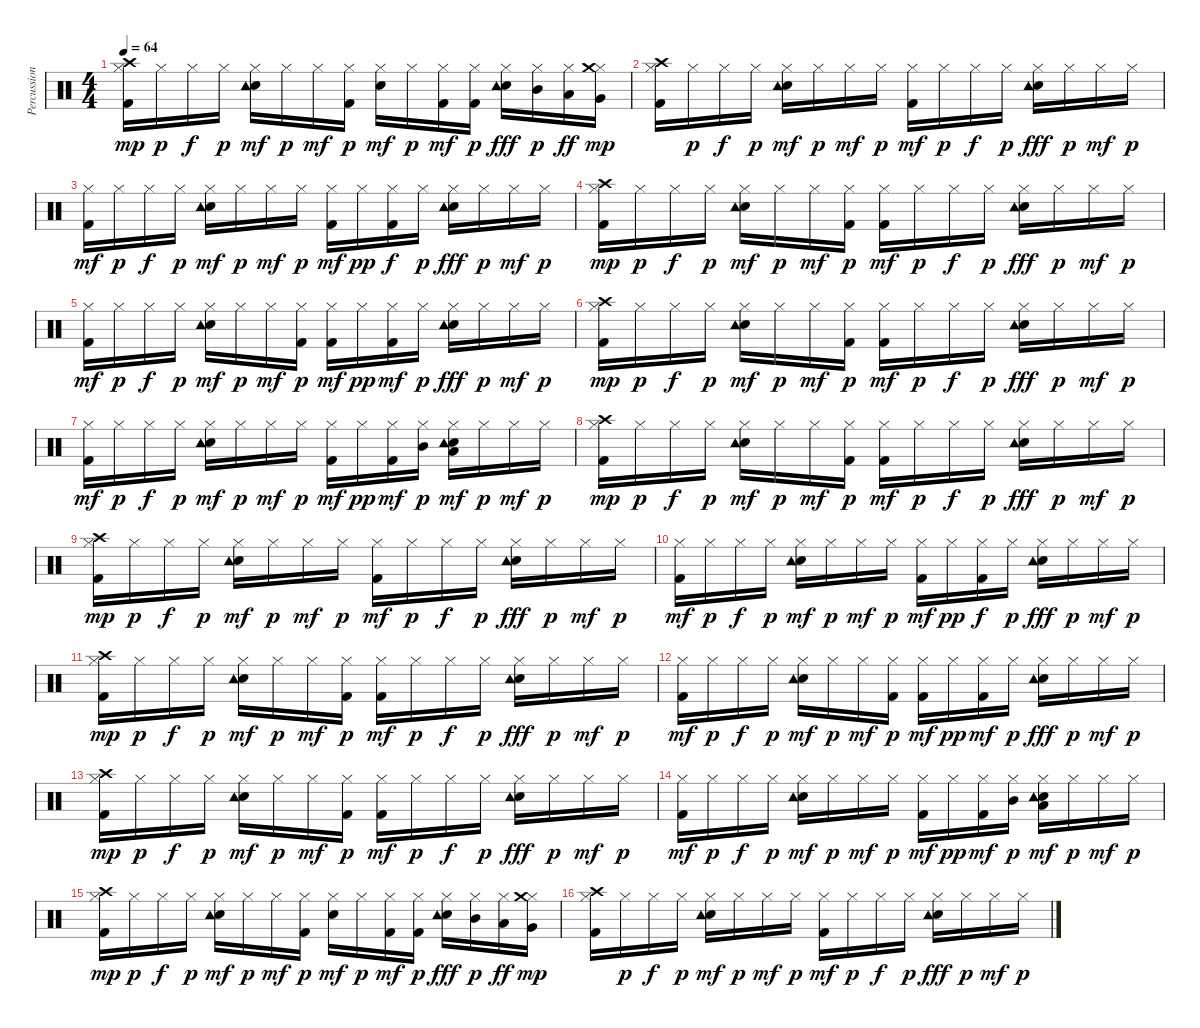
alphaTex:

\track ("Percussioni" "Percussion") {instrument percussion}
\staff {score}
\articulation defaults
\ts (4 4)
\tempo 64
\clef neutral
\ks c
("Kick (hit) 2" "Hi-Hat (closed)" "Crash high (hit)").16{dy mp} "Hi-Hat (closed)".16{dy p} "Hi-Hat (closed)".16{dy f} "Hi-Hat (closed)".16{dy p} ("Electric Snare (hit)" "Hi-Hat (closed)" "Tambourine (hit)").16{dy mf} "Hi-Hat (closed)".16{dy p} "Hi-Hat (closed)".16{dy mf} ("Kick (hit) 2" "Hi-Hat (closed)").16{dy p} ("Electric Snare (hit)" "Hi-Hat (closed)").16{dy mf} "Hi-Hat (closed)".16{dy p} ("Kick (hit) 2" "Hi-Hat (closed)").16{dy mf} ("Kick (hit) 2" "Hi-Hat (closed)").16{dy p} ("Electric Snare (hit)" "Hi-Hat (closed)" "Tambourine (hit)").16{dy fff} ("Hi-Hat (closed)" "Mid Tom (hit)").16{dy p} ("Hi-Hat (closed)" "Low Tom (hit)").16{dy ff} ("Hi-Hat (closed)" "Crash medium (hit)" "Very Low Tom (hit)").16{dy mp} |
("Kick (hit) 2" "Hi-Hat (closed)" "Crash high (hit)").16 "Hi-Hat (closed)".16{dy p} "Hi-Hat (closed)".16{dy f} "Hi-Hat (closed)".16{dy p} ("Electric Snare (hit)" "Hi-Hat (closed)" "Tambourine (hit)").16{dy mf} "Hi-Hat (closed)".16{dy p} "Hi-Hat (closed)".16{dy mf} "Hi-Hat (closed)".16{dy p} ("Kick (hit) 2" "Hi-Hat (closed)").16{dy mf} "Hi-Hat (closed)".16{dy p} "Hi-Hat (closed)".16{dy f} "Hi-Hat (closed)".16{dy p} ("Electric Snare (hit)" "Hi-Hat (closed)" "Tambourine (hit)").16{dy fff} "Hi-Hat (closed)".16{dy p} "Hi-Hat (closed)".16{dy mf} "Hi-Hat (closed)".16{dy p} |
("Kick (hit) 2" "Hi-Hat (closed)").16{dy mf} "Hi-Hat (closed)".16{dy p} "Hi-Hat (closed)".16{dy f} "Hi-Hat (closed)".16{dy p} ("Electric Snare (hit)" "Hi-Hat (closed)" "Tambourine (hit)").16{dy mf} "Hi-Hat (closed)".16{dy p} "Hi-Hat (closed)".16{dy mf} "Hi-Hat (closed)".16{dy p} ("Kick (hit) 2" "Hi-Hat (closed)").16{dy mf} "Hi-Hat (closed)".16{dy pp} ("Kick (hit) 2" "Hi-Hat (closed)").16{dy f} "Hi-Hat (closed)".16{dy p} ("Electric Snare (hit)" "Hi-Hat (closed)" "Tambourine (hit)").16{dy fff} "Hi-Hat (closed)".16{dy p} "Hi-Hat (closed)".16{dy mf} "Hi-Hat (closed)".16{dy p} |
("Kick (hit) 2" "Hi-Hat (closed)" "Crash high (hit)").16{dy mp} "Hi-Hat (closed)".16{dy p} "Hi-Hat (closed)".16{dy f} "Hi-Hat (closed)".16{dy p} ("Electric Snare (hit)" "Hi-Hat (closed)" "Tambourine (hit)").16{dy mf} "Hi-Hat (closed)".16{dy p} "Hi-Hat (closed)".16{dy mf} ("Kick (hit) 2" "Hi-Hat (closed)").16{dy p} ("Kick (hit) 2" "Hi-Hat (closed)").16{dy mf} "Hi-Hat (closed)".16{dy p} "Hi-Hat (closed)".16{dy f} "Hi-Hat (closed)".16{dy p} ("Electric Snare (hit)" "Hi-Hat (closed)" "Tambourine (hit)").16{dy fff} "Hi-Hat (closed)".16{dy p} "Hi-Hat (closed)".16{dy mf} "Hi-Hat (closed)".16{dy p} |
("Kick (hit) 2" "Hi-Hat (closed)").16{dy mf} "Hi-Hat (closed)".16{dy p} "Hi-Hat (closed)".16{dy f} "Hi-Hat (closed)".16{dy p} ("Electric Snare (hit)" "Hi-Hat (closed)" "Tambourine (hit)").16{dy mf} "Hi-Hat (closed)".16{dy p} "Hi-Hat (closed)".16{dy mf} ("Kick (hit) 2" "Hi-Hat (closed)").16{dy p} ("Kick (hit) 2" "Hi-Hat (closed)").16{dy mf} "Hi-Hat (closed)".16{dy pp} ("Kick (hit) 2" "Hi-Hat (closed)").16{dy mf} "Hi-Hat (closed)".16{dy p} ("Electric Snare (hit)" "Hi-Hat (closed)" "Tambourine (hit)").16{dy fff} "Hi-Hat (closed)".16{dy p} "Hi-Hat (closed)".16{dy mf} "Hi-Hat (closed)".16{dy p} |
("Kick (hit) 2" "Hi-Hat (closed)" "Crash high (hit)").16{dy mp} "Hi-Hat (closed)".16{dy p} "Hi-Hat (closed)".16{dy f} "Hi-Hat (closed)".16{dy p} ("Electric Snare (hit)" "Hi-Hat (closed)" "Tambourine (hit)").16{dy mf} "Hi-Hat (closed)".16{dy p} "Hi-Hat (closed)".16{dy mf} ("Kick (hit) 2" "Hi-Hat (closed)").16{dy p} ("Kick (hit) 2" "Hi-Hat (closed)").16{dy mf} "Hi-Hat (closed)".16{dy p} "Hi-Hat (closed)".16{dy f} "Hi-Hat (closed)".16{dy p} ("Electric Snare (hit)" "Hi-Hat (closed)" "Tambourine (hit)").16{dy fff} "Hi-Hat (closed)".16{dy p} "Hi-Hat (closed)".16{dy mf} "Hi-Hat (closed)".16{dy p} |
("Kick (hit) 2" "Hi-Hat (closed)").16{dy mf} "Hi-Hat (closed)".16{dy p} "Hi-Hat (closed)".16{dy f} "Hi-Hat (closed)".16{dy p} ("Electric Snare (hit)" "Hi-Hat (closed)" "Tambourine (hit)").16{dy mf} "Hi-Hat (closed)".16{dy p} "Hi-Hat (closed)".16{dy mf} "Hi-Hat (closed)".16{dy p} ("Kick (hit) 2" "Hi-Hat (closed)").16{dy mf} "Hi-Hat (closed)".16{dy pp} ("Kick (hit) 2" "Hi-Hat (closed)").16{dy mf} ("Hi-Hat (closed)" "Mid Tom (hit)").16{dy p} ("Electric Snare (hit)" "Hi-Hat (closed)" "Low Tom (hit)" "Tambourine (hit)").16{dy mf} "Hi-Hat (closed)".16{dy p} "Hi-Hat (closed)".16{dy mf} "Hi-Hat (closed)".16{dy p} |
("Kick (hit) 2" "Hi-Hat (closed)" "Crash high (hit)").16{dy mp} "Hi-Hat (closed)".16{dy p} "Hi-Hat (closed)".16{dy f} "Hi-Hat (closed)".16{dy p} ("Electric Snare (hit)" "Hi-Hat (closed)" "Tambourine (hit)").16{dy mf} "Hi-Hat (closed)".16{dy p} "Hi-Hat (closed)".16{dy mf} ("Kick (hit) 2" "Hi-Hat (closed)").16{dy p} ("Kick (hit) 2" "Hi-Hat (closed)").16{dy mf} "Hi-Hat (closed)".16{dy p} "Hi-Hat (closed)".16{dy f} "Hi-Hat (closed)".16{dy p} ("Electric Snare (hit)" "Hi-Hat (closed)" "Tambourine (hit)").16{dy fff} "Hi-Hat (closed)".16{dy p} "Hi-Hat (closed)".16{dy mf} "Hi-Hat (closed)".16{dy p} |
("Kick (hit) 2" "Hi-Hat (closed)" "Crash high (hit)").16{dy mp} "Hi-Hat (closed)".16{dy p} "Hi-Hat (closed)".16{dy f} "Hi-Hat (closed)".16{dy p} ("Electric Snare (hit)" "Hi-Hat (closed)" "Tambourine (hit)").16{dy mf} "Hi-Hat (closed)".16{dy p} "Hi-Hat (closed)".16{dy mf} "Hi-Hat (closed)".16{dy p} ("Kick (hit) 2" "Hi-Hat (closed)").16{dy mf} "Hi-Hat (closed)".16{dy p} "Hi-Hat (closed)".16{dy f} "Hi-Hat (closed)".16{dy p} ("Electric Snare (hit)" "Hi-Hat (closed)" "Tambourine (hit)").16{dy fff} "Hi-Hat (closed)".16{dy p} "Hi-Hat (closed)".16{dy mf} "Hi-Hat (closed)".16{dy p} |
("Kick (hit) 2" "Hi-Hat (closed)").16{dy mf} "Hi-Hat (closed)".16{dy p} "Hi-Hat (closed)".16{dy f} "Hi-Hat (closed)".16{dy p} ("Electric Snare (hit)" "Hi-Hat (closed)" "Tambourine (hit)").16{dy mf} "Hi-Hat (closed)".16{dy p} "Hi-Hat (closed)".16{dy mf} "Hi-Hat (closed)".16{dy p} ("Kick (hit) 2" "Hi-Hat (closed)").16{dy mf} "Hi-Hat (closed)".16{dy pp} ("Kick (hit) 2" "Hi-Hat (closed)").16{dy f} "Hi-Hat (closed)".16{dy p} ("Electric Snare (hit)" "Hi-Hat (closed)" "Tambourine (hit)").16{dy fff} "Hi-Hat (closed)".16{dy p} "Hi-Hat (closed)".16{dy mf} "Hi-Hat (closed)".16{dy p} |
("Kick (hit) 2" "Hi-Hat (closed)" "Crash high (hit)").16{dy mp} "Hi-Hat (closed)".16{dy p} "Hi-Hat (closed)".16{dy f} "Hi-Hat (closed)".16{dy p} ("Electric Snare (hit)" "Hi-Hat (closed)" "Tambourine (hit)").16{dy mf} "Hi-Hat (closed)".16{dy p} "Hi-Hat (closed)".16{dy mf} ("Kick (hit) 2" "Hi-Hat (closed)").16{dy p} ("Kick (hit) 2" "Hi-Hat (closed)").16{dy mf} "Hi-Hat (closed)".16{dy p} "Hi-Hat (closed)".16{dy f} "Hi-Hat (closed)".16{dy p} ("Electric Snare (hit)" "Hi-Hat (closed)" "Tambourine (hit)").16{dy fff} "Hi-Hat (closed)".16{dy p} "Hi-Hat (closed)".16{dy mf} "Hi-Hat (closed)".16{dy p} |
("Kick (hit) 2" "Hi-Hat (closed)").16{dy mf} "Hi-Hat (closed)".16{dy p} "Hi-Hat (closed)".16{dy f} "Hi-Hat (closed)".16{dy p} ("Electric Snare (hit)" "Hi-Hat (closed)" "Tambourine (hit)").16{dy mf} "Hi-Hat (closed)".16{dy p} "Hi-Hat (closed)".16{dy mf} ("Kick (hit) 2" "Hi-Hat (closed)").16{dy p} ("Kick (hit) 2" "Hi-Hat (closed)").16{dy mf} "Hi-Hat (closed)".16{dy pp} ("Kick (hit) 2" "Hi-Hat (closed)").16{dy mf} "Hi-Hat (closed)".16{dy p} ("Electric Snare (hit)" "Hi-Hat (closed)" "Tambourine (hit)").16{dy fff} "Hi-Hat (closed)".16{dy p} "Hi-Hat (closed)".16{dy mf} "Hi-Hat (closed)".16{dy p} |
("Kick (hit) 2" "Hi-Hat (closed)" "Crash high (hit)").16{dy mp} "Hi-Hat (closed)".16{dy p} "Hi-Hat (closed)".16{dy f} "Hi-Hat (closed)".16{dy p} ("Electric Snare (hit)" "Hi-Hat (closed)" "Tambourine (hit)").16{dy mf} "Hi-Hat (closed)".16{dy p} "Hi-Hat (closed)".16{dy mf} ("Kick (hit) 2" "Hi-Hat (closed)").16{dy p} ("Kick (hit) 2" "Hi-Hat (closed)").16{dy mf} "Hi-Hat (closed)".16{dy p} "Hi-Hat (closed)".16{dy f} "Hi-Hat (closed)".16{dy p} ("Electric Snare (hit)" "Hi-Hat (closed)" "Tambourine (hit)").16{dy fff} "Hi-Hat (closed)".16{dy p} "Hi-Hat (closed)".16{dy mf} "Hi-Hat (closed)".16{dy p} |
("Kick (hit) 2" "Hi-Hat (closed)").16{dy mf} "Hi-Hat (closed)".16{dy p} "Hi-Hat (closed)".16{dy f} "Hi-Hat (closed)".16{dy p} ("Electric Snare (hit)" "Hi-Hat (closed)" "Tambourine (hit)").16{dy mf} "Hi-Hat (closed)".16{dy p} "Hi-Hat (closed)".16{dy mf} "Hi-Hat (closed)".16{dy p} ("Kick (hit) 2" "Hi-Hat (closed)").16{dy mf} "Hi-Hat (closed)".16{dy pp} ("Kick (hit) 2" "Hi-Hat (closed)").16{dy mf} ("Hi-Hat (closed)" "Mid Tom (hit)").16{dy p} ("Electric Snare (hit)" "Hi-Hat (closed)" "Low Tom (hit)" "Tambourine (hit)").16{dy mf} "Hi-Hat (closed)".16{dy p} "Hi-Hat (closed)".16{dy mf} "Hi-Hat (closed)".16{dy p} |
("Kick (hit) 2" "Hi-Hat (closed)" "Crash high (hit)").16{dy mp volume 10} "Hi-Hat (closed)".16{dy p} "Hi-Hat (closed)".16{dy f} "Hi-Hat (closed)".16{dy p} ("Electric Snare (hit)" "Hi-Hat (closed)" "Tambourine (hit)").16{dy mf} "Hi-Hat (closed)".16{dy p} "Hi-Hat (closed)".16{dy mf} ("Kick (hit) 2" "Hi-Hat (closed)").16{dy p} ("Electric Snare (hit)" "Hi-Hat (closed)").16{dy mf} "Hi-Hat (closed)".16{dy p} ("Kick (hit) 2" "Hi-Hat (closed)").16{dy mf} ("Kick (hit) 2" "Hi-Hat (closed)").16{dy p} ("Electric Snare (hit)" "Hi-Hat (closed)" "Tambourine (hit)").16{dy fff} ("Hi-Hat (closed)" "Mid Tom (hit)").16{dy p} ("Hi-Hat (closed)" "Low Tom (hit)").16{dy ff} ("Hi-Hat (closed)" "Crash medium (hit)" "Very Low Tom (hit)").16{dy mp} |
("Kick (hit) 2" "Hi-Hat (closed)" "Crash high (hit)").16 "Hi-Hat (closed)".16{dy p} "Hi-Hat (closed)".16{dy f} "Hi-Hat (closed)".16{dy p} ("Electric Snare (hit)" "Hi-Hat (closed)" "Tambourine (hit)").16{dy mf} "Hi-Hat (closed)".16{dy p} "Hi-Hat (closed)".16{dy mf} "Hi-Hat (closed)".16{dy p} ("Kick (hit) 2" "Hi-Hat (closed)").16{dy mf} "Hi-Hat (closed)".16{dy p} "Hi-Hat (closed)".16{dy f} "Hi-Hat (closed)".16{dy p} ("Electric Snare (hit)" "Hi-Hat (closed)" "Tambourine (hit)").16{dy fff} "Hi-Hat (closed)".16{dy p} "Hi-Hat (closed)".16{dy mf} "Hi-Hat (closed)".16{dy p}
